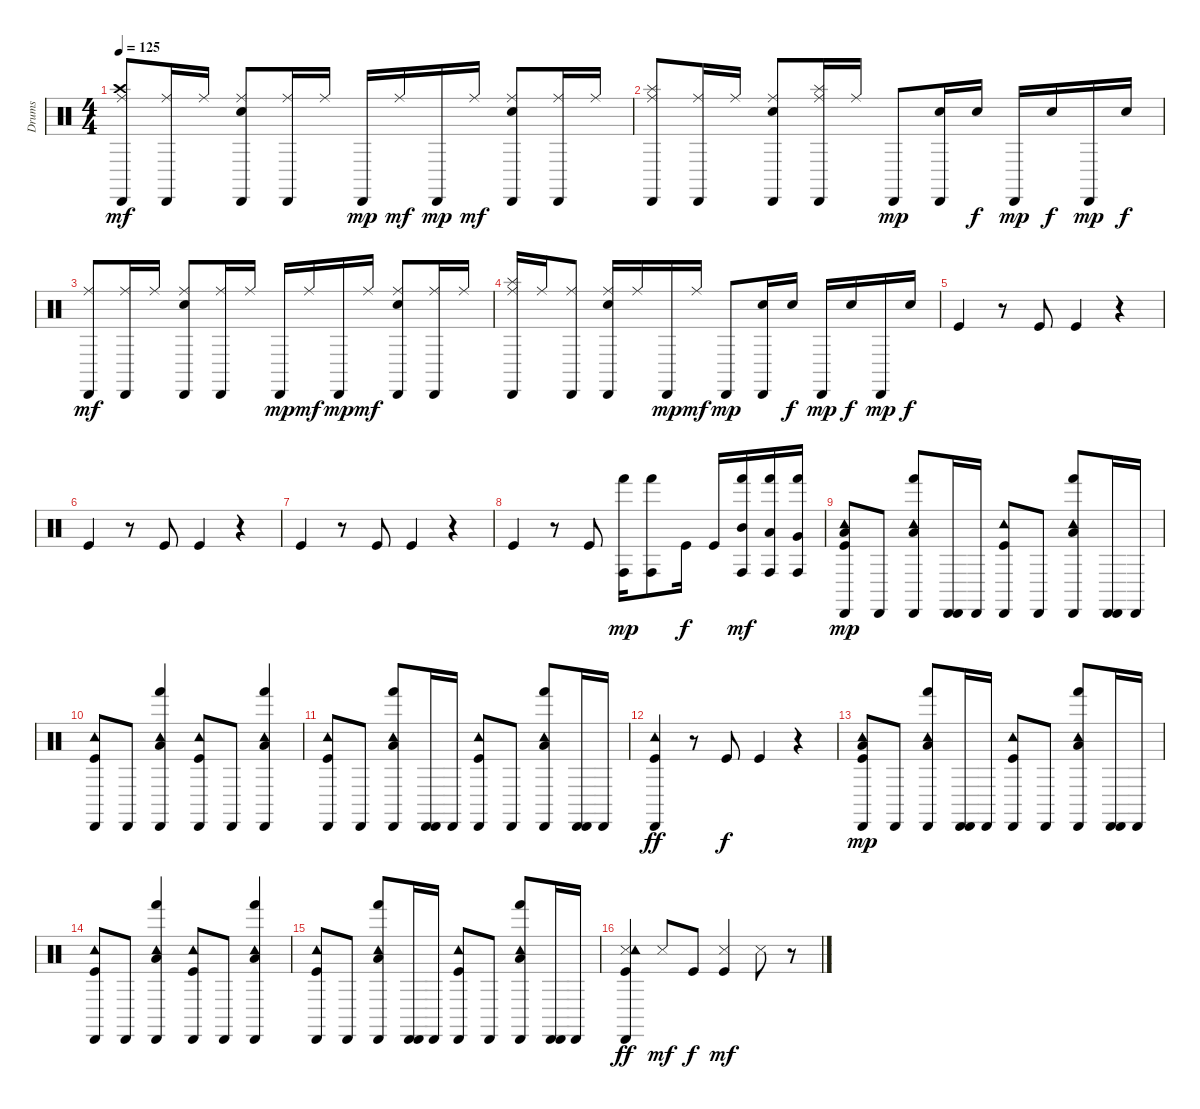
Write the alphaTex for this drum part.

\track ("Drums" "Drums") {instrument percussion}
\staff {score}
\articulation defaults
\ts (4 4)
\tempo 125
\clef neutral
\ks c
("Cabasa (hit)" "Crash high (hit)" "Ride (middle)").8{dy mf} ("Cabasa (hit)" "Ride (middle)").16 "Ride (middle)".16 ("Cabasa (hit)" "Electric Snare (hit)" "Ride (middle)").8 ("Cabasa (hit)" "Ride (middle)").16 "Ride (middle)".16 "Cabasa (hit)".16{dy mp} "Ride (middle)".16{dy mf} "Cabasa (hit)".16{dy mp} "Ride (middle)".16{dy mf} ("Cabasa (hit)" "Electric Snare (hit)" "Ride (middle)").8 ("Cabasa (hit)" "Ride (middle)").16 "Ride (middle)".16 |
("Splash (hit)" "Cabasa (hit)" "Ride (middle)").8 ("Cabasa (hit)" "Ride (middle)").16 "Ride (middle)".16 ("Cabasa (hit)" "Electric Snare (hit)" "Ride (middle)").8 ("Splash (hit)" "Cabasa (hit)" "Ride (middle)").16 "Ride (middle)".16 "Cabasa (hit)".8{dy mp} ("Electric Snare (hit)" "Cabasa (hit)").16 "Electric Snare (hit)".16{dy f} "Cabasa (hit)".16{dy mp} "Electric Snare (hit)".16{dy f} "Cabasa (hit)".16{dy mp} "Electric Snare (hit)".16{dy f} |
("Cabasa (hit)" "Ride (middle)").8{dy mf} ("Cabasa (hit)" "Ride (middle)").16 "Ride (middle)".16 ("Cabasa (hit)" "Electric Snare (hit)" "Ride (middle)").8 ("Cabasa (hit)" "Ride (middle)").16 "Ride (middle)".16 "Cabasa (hit)".16{dy mp} "Ride (middle)".16{dy mf} "Cabasa (hit)".16{dy mp} "Ride (middle)".16{dy mf} ("Cabasa (hit)" "Electric Snare (hit)" "Ride (middle)").8 ("Cabasa (hit)" "Ride (middle)").16 "Ride (middle)".16 |
("Splash (hit)" "Cabasa (hit)" "Ride (middle)").16 "Ride (middle)".16 ("Cabasa (hit)" "Ride (middle)").8 ("Cabasa (hit)" "Electric Snare (hit)" "Ride (middle)").16 "Ride (middle)".16 "Cabasa (hit)".16{dy mp} "Ride (middle)".16{dy mf} "Cabasa (hit)".8{dy mp} ("Electric Snare (hit)" "Cabasa (hit)").16 "Electric Snare (hit)".16{dy f} "Cabasa (hit)".16{dy mp} "Electric Snare (hit)".16{dy f} "Cabasa (hit)".16{dy mp} "Electric Snare (hit)".16{dy f} |
"Kick (hit)".4 r.8 "Kick (hit)".8 "Kick (hit)".4 r.4 |
"Kick (hit)".4 r.8 "Kick (hit)".8 "Kick (hit)".4 r.4 |
"Kick (hit)".4 r.8 "Kick (hit)".8 "Kick (hit)".4 r.4 |
"Kick (hit)".4 r.8 "Kick (hit)".8 ("Conga high (hit)" "Hand (hit)").16{dy mp} ("Conga high (hit)" "Hand (hit)").8 "Kick (hit)".16{dy f} "Kick (hit)".16 ("Conga high (hit)" "Mid Tom (hit)" "Hand (hit)").16{dy mf} ("Conga high (hit)" "Low Tom (hit)" "Hand (hit)").16 ("Conga high (hit)" "Very Low Tom (hit)" "Hand (hit)").16 |
("Low Floor Tom (hit)" "Kick (hit)" "Tambourine (hit)" "Cabasa (hit)").8{dy mp} "Cabasa (hit)".8 ("Low Tom (hit)" "Hand (hit)" "Tambourine (hit)" "Cabasa (hit)").8 ("Cabasa (hit)" "Cabasa (hit)").16 "Cabasa (hit)".16 ("Kick (hit)" "Tambourine (hit)" "Cabasa (hit)").8 "Cabasa (hit)".8 ("Low Tom (hit)" "Hand (hit)" "Tambourine (hit)" "Cabasa (hit)").8 ("Cabasa (hit)" "Cabasa (hit)").16 "Cabasa (hit)".16 |
("Kick (hit)" "Tambourine (hit)" "Cabasa (hit)").8 "Cabasa (hit)".8 ("Hand (hit)" "Cabasa (hit)" "Low Tom (hit)" "Tambourine (hit)").4 ("Kick (hit)" "Tambourine (hit)" "Cabasa (hit)").8 "Cabasa (hit)".8 ("Cabasa (hit)" "Low Tom (hit)" "Hand (hit)" "Tambourine (hit)").4 |
("Kick (hit)" "Tambourine (hit)" "Cabasa (hit)").8 "Cabasa (hit)".8 ("Low Tom (hit)" "Hand (hit)" "Tambourine (hit)" "Cabasa (hit)").8 ("Cabasa (hit)" "Cabasa (hit)").16 "Cabasa (hit)".16 ("Kick (hit)" "Tambourine (hit)" "Cabasa (hit)").8 "Cabasa (hit)".8 ("Low Tom (hit)" "Hand (hit)" "Tambourine (hit)" "Cabasa (hit)").8 ("Cabasa (hit)" "Cabasa (hit)").16 "Cabasa (hit)".16 |
("Cabasa (hit)" "Kick (hit)" "Tambourine (hit)").4{dy ff} r.8 "Kick (hit)".8{dy f} "Kick (hit)".4 r.4 |
("Low Floor Tom (hit)" "Kick (hit)" "Tambourine (hit)" "Cabasa (hit)").8{dy mp} "Cabasa (hit)".8 ("Low Tom (hit)" "Hand (hit)" "Tambourine (hit)" "Cabasa (hit)").8 ("Cabasa (hit)" "Cabasa (hit)").16 "Cabasa (hit)".16 ("Kick (hit)" "Tambourine (hit)" "Cabasa (hit)").8 "Cabasa (hit)".8 ("Low Tom (hit)" "Hand (hit)" "Tambourine (hit)" "Cabasa (hit)").8 ("Cabasa (hit)" "Cabasa (hit)").16 "Cabasa (hit)".16 |
("Kick (hit)" "Tambourine (hit)" "Cabasa (hit)").8 "Cabasa (hit)".8 ("Hand (hit)" "Cabasa (hit)" "Low Tom (hit)" "Tambourine (hit)").4 ("Kick (hit)" "Tambourine (hit)" "Cabasa (hit)").8 "Cabasa (hit)".8 ("Cabasa (hit)" "Low Tom (hit)" "Hand (hit)" "Tambourine (hit)").4 |
("Kick (hit)" "Tambourine (hit)" "Cabasa (hit)").8 "Cabasa (hit)".8 ("Low Tom (hit)" "Hand (hit)" "Tambourine (hit)" "Cabasa (hit)").8 ("Cabasa (hit)" "Cabasa (hit)").16 "Cabasa (hit)".16 ("Kick (hit)" "Tambourine (hit)" "Cabasa (hit)").8 "Cabasa (hit)".8 ("Low Tom (hit)" "Hand (hit)" "Tambourine (hit)" "Cabasa (hit)").8 ("Cabasa (hit)" "Cabasa (hit)").16 "Cabasa (hit)".16 |
("Snare (side stick) 3" "Cabasa (hit)" "Kick (hit)" "Tambourine (hit)").4{dy ff} "Snare (side stick) 3".8{dy mf} "Kick (hit)".8{dy f} ("Snare (side stick) 3" "Kick (hit)").4{dy mf} "Snare (side stick) 3".8 r.8
